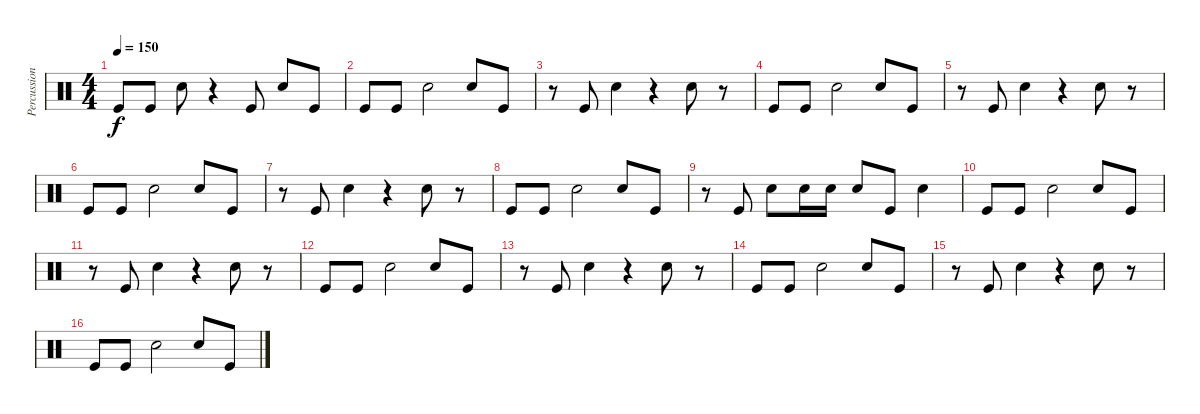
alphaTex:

\track ("Percussion" "Percussion") {instrument percussion}
\staff {score}
\articulation defaults
\ts (4 4)
\tempo 150
\clef neutral
\ks c "Kick (hit)".8{dy f} "Kick (hit)".8 "Snare (hit) 2".8
r.4 "Kick (hit)".8 "Snare (hit) 2".8 "Kick (hit)".8 |
"Kick (hit)".8 "Kick (hit)".8 "Snare (hit) 2".2 "Snare (hit) 2".8 "Kick (hit)".8 |
r.8 "Kick (hit)".8 "Snare (hit) 2".4 r.4 "Snare (hit) 2".8 r.8 |
"Kick (hit)".8 "Kick (hit)".8 "Snare (hit) 2".2 "Snare (hit) 2".8 "Kick (hit)".8 |
r.8 "Kick (hit)".8 "Snare (hit) 2".4 r.4 "Snare (hit) 2".8 r.8 |
"Kick (hit)".8 "Kick (hit)".8 "Snare (hit) 2".2 "Snare (hit) 2".8 "Kick (hit)".8 |
r.8 "Kick (hit)".8 "Snare (hit) 2".4 r.4 "Snare (hit) 2".8 r.8 |
"Kick (hit)".8 "Kick (hit)".8 "Snare (hit) 2".2 "Snare (hit) 2".8 "Kick (hit)".8 |
r.8 "Kick (hit)".8 "Snare (hit) 2".8 "Snare (hit) 2".16 "Snare (hit) 2".16 "Snare (hit) 2".8 "Kick (hit)".8 "Snare (hit) 2".4 |
"Kick (hit)".8 "Kick (hit)".8 "Snare (hit) 2".2 "Snare (hit) 2".8 "Kick (hit)".8 |
r.8 "Kick (hit)".8 "Snare (hit) 2".4 r.4 "Snare (hit) 2".8 r.8 |
"Kick (hit)".8 "Kick (hit)".8 "Snare (hit) 2".2 "Snare (hit) 2".8 "Kick (hit)".8 |
r.8 "Kick (hit)".8 "Snare (hit) 2".4 r.4 "Snare (hit) 2".8 r.8 |
"Kick (hit)".8 "Kick (hit)".8 "Snare (hit) 2".2 "Snare (hit) 2".8 "Kick (hit)".8 |
r.8 "Kick (hit)".8 "Snare (hit) 2".4 r.4 "Snare (hit) 2".8 r.8 |
"Kick (hit)".8 "Kick (hit)".8 "Snare (hit) 2".2 "Snare (hit) 2".8 "Kick (hit)".8
